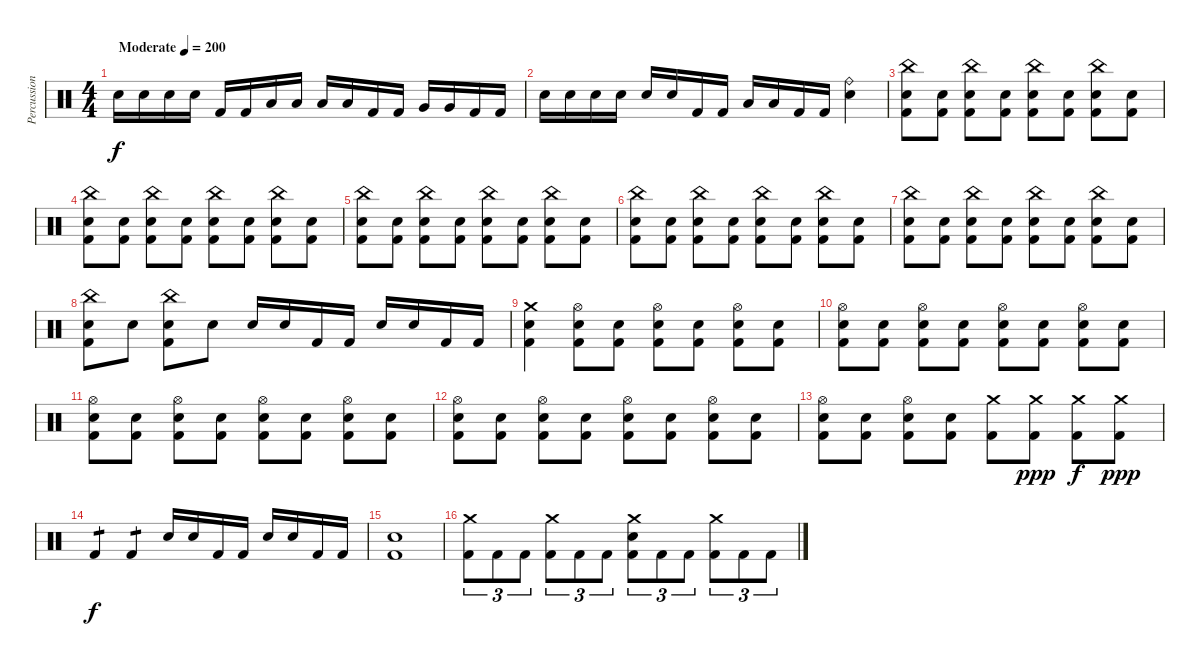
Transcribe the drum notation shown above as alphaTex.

\track ("Percussion" "Percussion") {instrument percussion}
\staff {score}
\articulation defaults
\ts (4 4)
\tempo (200 "Moderate")
\clef neutral
\ks c "Electric Snare (hit)".16{dy f} "Electric Snare (hit)".16 "Electric Snare (hit)".16 "Electric Snare (hit)".16 "Kick (hit) 2".16 "Kick (hit) 2".16 "Low Tom (hit)".16 "Low Tom (hit)".16 "Low Tom (hit)".16 "Low Tom (hit)".16 "Kick (hit) 2".16 "Kick (hit) 2".16 "Very Low Tom (hit)".16 "Very Low Tom (hit)".16 "Kick (hit) 2".16 "Kick (hit) 2".16
|
"Electric Snare (hit)".16 "Electric Snare (hit)".16 "Electric Snare (hit)".16 "Electric Snare (hit)".16 "Electric Snare (hit)".16 "Electric Snare (hit)".16 "Kick (hit) 2".16 "Kick (hit) 2".16 "Low Tom (hit)".16 "Low Tom (hit)".16 "Kick (hit) 2".16 "Kick (hit) 2".16 ("Ride (bell)" "Electric Snare (hit)").4 |
("China (hit)" "Electric Snare (hit)" "Kick (hit) 2").8 ("Electric Snare (hit)" "Kick (hit) 2").8 ("China (hit)" "Electric Snare (hit)" "Kick (hit) 2").8 ("Electric Snare (hit)" "Kick (hit) 2").8 ("China (hit)" "Electric Snare (hit)" "Kick (hit) 2").8 ("Electric Snare (hit)" "Kick (hit) 2").8 ("China (hit)" "Electric Snare (hit)" "Kick (hit) 2").8 ("Electric Snare (hit)" "Kick (hit) 2").8 |
("China (hit)" "Electric Snare (hit)" "Kick (hit) 2").8 ("Electric Snare (hit)" "Kick (hit) 2").8 ("China (hit)" "Electric Snare (hit)" "Kick (hit) 2").8 ("Electric Snare (hit)" "Kick (hit) 2").8 ("China (hit)" "Electric Snare (hit)" "Kick (hit) 2").8 ("Electric Snare (hit)" "Kick (hit) 2").8 ("China (hit)" "Electric Snare (hit)" "Kick (hit) 2").8 ("Electric Snare (hit)" "Kick (hit) 2").8 |
("China (hit)" "Electric Snare (hit)" "Kick (hit) 2").8 ("Electric Snare (hit)" "Kick (hit) 2").8 ("China (hit)" "Electric Snare (hit)" "Kick (hit) 2").8 ("Electric Snare (hit)" "Kick (hit) 2").8 ("China (hit)" "Electric Snare (hit)" "Kick (hit) 2").8 ("Electric Snare (hit)" "Kick (hit) 2").8 ("China (hit)" "Electric Snare (hit)" "Kick (hit) 2").8 ("Electric Snare (hit)" "Kick (hit) 2").8 |
("China (hit)" "Electric Snare (hit)" "Kick (hit) 2").8 ("Electric Snare (hit)" "Kick (hit) 2").8 ("China (hit)" "Electric Snare (hit)" "Kick (hit) 2").8 ("Electric Snare (hit)" "Kick (hit) 2").8 ("China (hit)" "Electric Snare (hit)" "Kick (hit) 2").8 ("Electric Snare (hit)" "Kick (hit) 2").8 ("China (hit)" "Electric Snare (hit)" "Kick (hit) 2").8 ("Electric Snare (hit)" "Kick (hit) 2").8 |
("China (hit)" "Electric Snare (hit)" "Kick (hit) 2").8 ("Electric Snare (hit)" "Kick (hit) 2").8 ("China (hit)" "Electric Snare (hit)" "Kick (hit) 2").8 ("Electric Snare (hit)" "Kick (hit) 2").8 ("China (hit)" "Electric Snare (hit)" "Kick (hit) 2").8 ("Electric Snare (hit)" "Kick (hit) 2").8 ("China (hit)" "Electric Snare (hit)" "Kick (hit) 2").8 ("Electric Snare (hit)" "Kick (hit) 2").8 |
("China (hit)" "Electric Snare (hit)" "Kick (hit) 2").8 "Electric Snare (hit)".8 ("China (hit)" "Electric Snare (hit)" "Kick (hit) 2").8 "Electric Snare (hit)".8 "Electric Snare (hit)".16 "Electric Snare (hit)".16 "Kick (hit) 2".16 "Kick (hit) 2".16 "Electric Snare (hit)".16 "Electric Snare (hit)".16 "Kick (hit) 2".16 "Kick (hit) 2".16 |
("Crash medium (hit)" "Electric Snare (hit)" "Kick (hit) 2").4 ("Hi-Hat (open)" "Electric Snare (hit)" "Kick (hit) 2").8 ("Electric Snare (hit)" "Kick (hit) 2").8 ("Hi-Hat (open)" "Electric Snare (hit)" "Kick (hit) 2").8 ("Electric Snare (hit)" "Kick (hit) 2").8 ("Hi-Hat (open)" "Electric Snare (hit)" "Kick (hit) 2").8 ("Electric Snare (hit)" "Kick (hit) 2").8 |
("Hi-Hat (open)" "Electric Snare (hit)" "Kick (hit) 2").8 ("Electric Snare (hit)" "Kick (hit) 2").8 ("Hi-Hat (open)" "Electric Snare (hit)" "Kick (hit) 2").8 ("Electric Snare (hit)" "Kick (hit) 2").8 ("Hi-Hat (open)" "Electric Snare (hit)" "Kick (hit) 2").8 ("Electric Snare (hit)" "Kick (hit) 2").8 ("Hi-Hat (open)" "Electric Snare (hit)" "Kick (hit) 2").8 ("Electric Snare (hit)" "Kick (hit) 2").8 |
("Hi-Hat (open)" "Electric Snare (hit)" "Kick (hit) 2").8 ("Electric Snare (hit)" "Kick (hit) 2").8 ("Hi-Hat (open)" "Electric Snare (hit)" "Kick (hit) 2").8 ("Electric Snare (hit)" "Kick (hit) 2").8 ("Hi-Hat (open)" "Electric Snare (hit)" "Kick (hit) 2").8 ("Electric Snare (hit)" "Kick (hit) 2").8 ("Hi-Hat (open)" "Electric Snare (hit)" "Kick (hit) 2").8 ("Electric Snare (hit)" "Kick (hit) 2").8 |
("Hi-Hat (open)" "Electric Snare (hit)" "Kick (hit) 2").8 ("Electric Snare (hit)" "Kick (hit) 2").8 ("Hi-Hat (open)" "Electric Snare (hit)" "Kick (hit) 2").8 ("Electric Snare (hit)" "Kick (hit) 2").8 ("Hi-Hat (open)" "Electric Snare (hit)" "Kick (hit) 2").8 ("Electric Snare (hit)" "Kick (hit) 2").8 ("Hi-Hat (open)" "Electric Snare (hit)" "Kick (hit) 2").8 ("Electric Snare (hit)" "Kick (hit) 2").8 |
("Hi-Hat (open)" "Electric Snare (hit)" "Kick (hit) 2").8 ("Electric Snare (hit)" "Kick (hit) 2").8 ("Hi-Hat (open)" "Electric Snare (hit)" "Kick (hit) 2").8 ("Electric Snare (hit)" "Kick (hit) 2").8 ("Crash medium (hit)" "Kick (hit) 2").8 ("Crash medium (hit)" "Kick (hit) 2").8{dy ppp} ("Crash medium (hit)" "Kick (hit) 2").8{dy f} ("Crash medium (hit)" "Kick (hit) 2").8{dy ppp} |
"Kick (hit) 2".4{tp 1 dy f} "Kick (hit) 2".4{tp 1} "Electric Snare (hit)".16 "Electric Snare (hit)".16 "Kick (hit) 2".16 "Kick (hit) 2".16 "Electric Snare (hit)".16 "Electric Snare (hit)".16 "Kick (hit) 2".16 "Kick (hit) 2".16 |
("Electric Snare (hit)" "Kick (hit) 2").1 |
("Crash medium (hit)" "Kick (hit) 2").8{tu (3 2)} "Kick (hit) 2".8{tu (3 2)} "Kick (hit) 2".8{tu (3 2)} ("Crash medium (hit)" "Kick (hit) 2").8{tu (3 2)} "Kick (hit) 2".8{tu (3 2)} "Kick (hit) 2".8{tu (3 2)} ("Crash medium (hit)" "Electric Snare (hit)" "Kick (hit) 2").8{tu (3 2)} "Kick (hit) 2".8{tu (3 2)} "Kick (hit) 2".8{tu (3 2)} ("Crash medium (hit)" "Kick (hit) 2").8{tu (3 2)} "Kick (hit) 2".8{tu (3 2)} "Kick (hit) 2".8{tu (3 2)}
